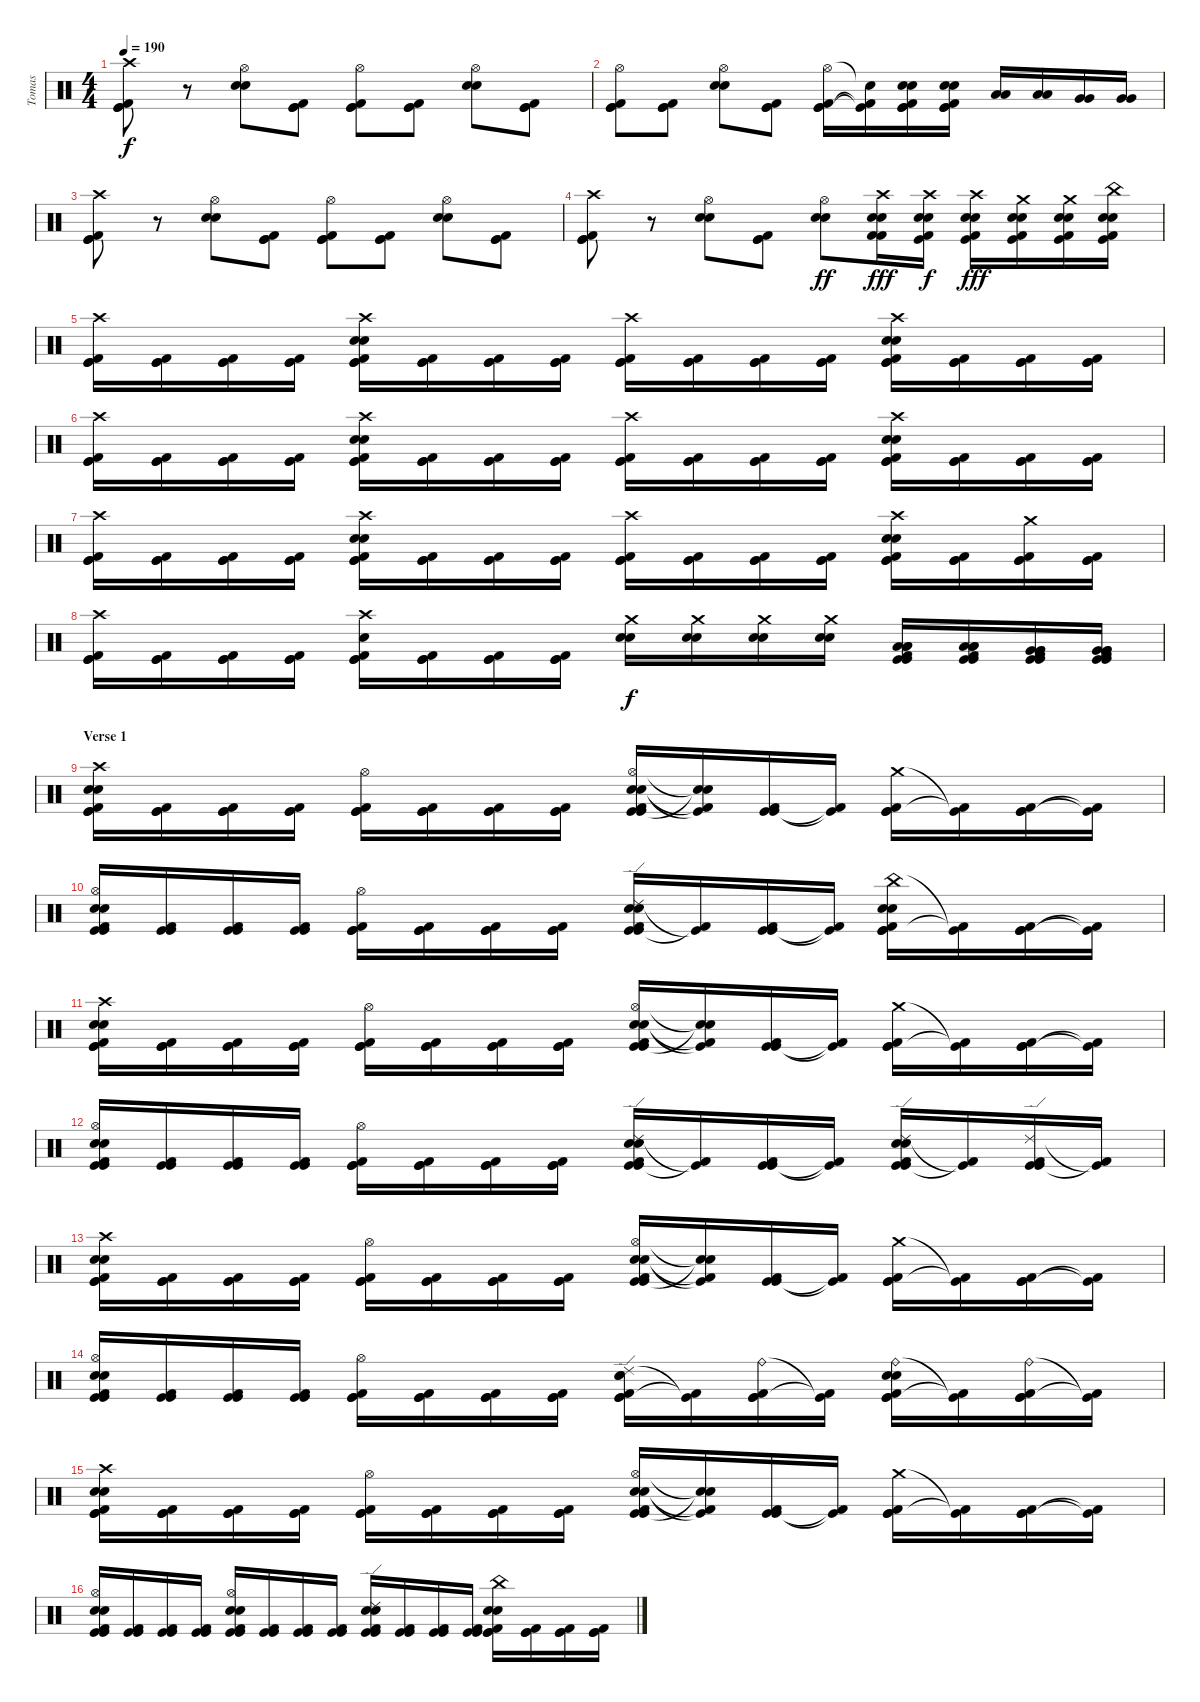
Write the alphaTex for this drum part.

\track ("Tomas" "Tomas") {instrument percussion}
\staff {score}
\articulation defaults
\ts (4 4)
\tempo 190
\clef neutral
\ks c
("Crash high (hit)" "Kick (hit)" "Kick (hit)" "Kick (hit) 2").8{dy f} r.8 ("Hi-Hat (open)" "Electric Snare (hit)" "Electric Snare (hit)").8 ("Kick (hit)" "Kick (hit)" "Kick (hit) 2").8 ("Hi-Hat (open)" "Kick (hit)" "Kick (hit)" "Kick (hit) 2").8 ("Kick (hit)" "Kick (hit)" "Kick (hit) 2").8 ("Hi-Hat (open)" "Electric Snare (hit)" "Electric Snare (hit)").8 ("Kick (hit)" "Kick (hit)" "Kick (hit) 2").8 |
("Hi-Hat (open)" "Kick (hit)" "Kick (hit)" "Kick (hit) 2").8 ("Kick (hit)" "Kick (hit)" "Kick (hit) 2").8 ("Hi-Hat (open)" "Electric Snare (hit)" "Electric Snare (hit)").8 ("Kick (hit)" "Kick (hit)" "Kick (hit) 2").8 ("Hi-Hat (open)" "Kick (hit)" "Kick (hit)" "Kick (hit) 2").16 ("Snare (hit)"{t} "Kick (hit)"{t} "Kick (hit) 2"{t}).16 ("Kick (hit)" "Electric Snare (hit)" "Electric Snare (hit)" "Kick (hit)" "Kick (hit) 2").16 ("Kick (hit)" "Electric Snare (hit)" "Electric Snare (hit)" "Kick (hit)" "Kick (hit) 2").16 ("Low Tom (hit)" "Low Tom (hit)").16 ("Low Tom (hit)" "Low Tom (hit)").16 ("Very Low Tom (hit)" "Very Low Tom (hit)").16 ("Very Low Tom (hit)" "Very Low Tom (hit)").16 |
("Crash high (hit)" "Kick (hit)" "Kick (hit)" "Kick (hit) 2").8 r.8 ("Hi-Hat (open)" "Electric Snare (hit)" "Electric Snare (hit)").8 ("Kick (hit)" "Kick (hit)" "Kick (hit) 2").8 ("Hi-Hat (open)" "Kick (hit)" "Kick (hit)" "Kick (hit) 2").8 ("Kick (hit)" "Kick (hit)" "Kick (hit) 2").8 ("Hi-Hat (open)" "Electric Snare (hit)" "Electric Snare (hit)").8 ("Kick (hit)" "Kick (hit)" "Kick (hit) 2").8 |
("Crash high (hit)" "Kick (hit)" "Kick (hit)" "Kick (hit) 2").8 r.8 ("Hi-Hat (open)" "Electric Snare (hit)" "Electric Snare (hit)").8 ("Kick (hit)" "Kick (hit)" "Kick (hit) 2").8 ("Hi-Hat (open)" "Electric Snare (hit)" "Electric Snare (hit)").8{dy ff} ("Crash high (hit)" "Kick (hit) 2" "Kick (hit) 2" "Electric Snare (hit)" "Electric Snare (hit)").16{dy fff} ("Crash high (hit)" "Kick (hit)" "Kick (hit) 2" "Electric Snare (hit)" "Electric Snare (hit)").16{dy f} ("Crash high (hit)" "Kick (hit)" "Kick (hit) 2" "Electric Snare (hit)" "Electric Snare (hit)").16{dy fff} ("Crash medium (hit)" "Kick (hit)" "Kick (hit) 2" "Electric Snare (hit)" "Electric Snare (hit)").16 ("Crash medium (hit)" "Kick (hit)" "Kick (hit) 2" "Electric Snare (hit)" "Electric Snare (hit)").16 ("China (hit)" "Kick (hit)" "Kick (hit) 2" "Electric Snare (hit)" "Electric Snare (hit)").16 |
("Crash high (hit)" "Kick (hit)" "Kick (hit)" "Kick (hit) 2").16 ("Kick (hit)" "Kick (hit)" "Kick (hit) 2").16 ("Kick (hit)" "Kick (hit)" "Kick (hit) 2").16 ("Kick (hit)" "Kick (hit)" "Kick (hit) 2").16 ("Crash high (hit)" "Kick (hit)" "Electric Snare (hit)" "Electric Snare (hit)" "Kick (hit)" "Kick (hit) 2").16 ("Kick (hit)" "Kick (hit)" "Kick (hit) 2").16 ("Kick (hit)" "Kick (hit)" "Kick (hit) 2").16 ("Kick (hit)" "Kick (hit)" "Kick (hit) 2").16 ("Crash high (hit)" "Kick (hit)" "Kick (hit)" "Kick (hit) 2").16 ("Kick (hit)" "Kick (hit)" "Kick (hit) 2").16 ("Kick (hit)" "Kick (hit)" "Kick (hit) 2").16 ("Kick (hit)" "Kick (hit)" "Kick (hit) 2").16 ("Crash high (hit)" "Kick (hit)" "Electric Snare (hit)" "Electric Snare (hit)" "Kick (hit)" "Kick (hit) 2").16 ("Kick (hit)" "Kick (hit)" "Kick (hit) 2").16 ("Kick (hit)" "Kick (hit)" "Kick (hit) 2").16 ("Kick (hit)" "Kick (hit)" "Kick (hit) 2").16 |
("Crash high (hit)" "Kick (hit)" "Kick (hit)" "Kick (hit) 2").16 ("Kick (hit)" "Kick (hit)" "Kick (hit) 2").16 ("Kick (hit)" "Kick (hit)" "Kick (hit) 2").16 ("Kick (hit)" "Kick (hit)" "Kick (hit) 2").16 ("Crash high (hit)" "Kick (hit)" "Electric Snare (hit)" "Electric Snare (hit)" "Kick (hit)" "Kick (hit) 2").16 ("Kick (hit)" "Kick (hit)" "Kick (hit) 2").16 ("Kick (hit)" "Kick (hit)" "Kick (hit) 2").16 ("Kick (hit)" "Kick (hit)" "Kick (hit) 2").16 ("Crash high (hit)" "Kick (hit)" "Kick (hit)" "Kick (hit) 2").16 ("Kick (hit)" "Kick (hit)" "Kick (hit) 2").16 ("Kick (hit)" "Kick (hit)" "Kick (hit) 2").16 ("Kick (hit)" "Kick (hit)" "Kick (hit) 2").16 ("Crash high (hit)" "Kick (hit)" "Electric Snare (hit)" "Electric Snare (hit)" "Kick (hit)" "Kick (hit) 2").16 ("Kick (hit)" "Kick (hit)" "Kick (hit) 2").16 ("Kick (hit)" "Kick (hit)" "Kick (hit) 2").16 ("Kick (hit)" "Kick (hit)" "Kick (hit) 2").16 |
("Crash high (hit)" "Kick (hit)" "Kick (hit)" "Kick (hit) 2").16 ("Kick (hit)" "Kick (hit)" "Kick (hit) 2").16 ("Kick (hit)" "Kick (hit)" "Kick (hit) 2").16 ("Kick (hit)" "Kick (hit)" "Kick (hit) 2").16 ("Crash high (hit)" "Kick (hit)" "Electric Snare (hit)" "Electric Snare (hit)" "Kick (hit)" "Kick (hit) 2").16 ("Kick (hit)" "Kick (hit)" "Kick (hit) 2").16 ("Kick (hit)" "Kick (hit)" "Kick (hit) 2").16 ("Kick (hit)" "Kick (hit)" "Kick (hit) 2").16 ("Crash high (hit)" "Kick (hit)" "Kick (hit)" "Kick (hit) 2").16 ("Kick (hit)" "Kick (hit)" "Kick (hit) 2").16 ("Kick (hit)" "Kick (hit)" "Kick (hit) 2").16 ("Kick (hit)" "Kick (hit)" "Kick (hit) 2").16 ("Crash high (hit)" "Kick (hit)" "Electric Snare (hit)" "Electric Snare (hit)" "Kick (hit)" "Kick (hit) 2").16 ("Kick (hit)" "Kick (hit)" "Kick (hit) 2").16 ("Crash medium (hit)" "Kick (hit)" "Kick (hit)" "Kick (hit) 2").16 ("Kick (hit)" "Kick (hit)" "Kick (hit) 2").16 |
("Crash high (hit)" "Kick (hit)" "Kick (hit)" "Kick (hit) 2").16 ("Kick (hit)" "Kick (hit)" "Kick (hit) 2").16 ("Kick (hit)" "Kick (hit)" "Kick (hit) 2").16 ("Kick (hit)" "Kick (hit)" "Kick (hit) 2").16 ("Crash high (hit)" "Kick (hit)" "Electric Snare (hit)" "Kick (hit)" "Kick (hit) 2").16 ("Kick (hit)" "Kick (hit)" "Kick (hit) 2").16 ("Kick (hit)" "Kick (hit)" "Kick (hit) 2").16 ("Kick (hit)" "Kick (hit)" "Kick (hit) 2").16 ("Crash medium (hit)" "Electric Snare (hit)" "Electric Snare (hit)").16{dy f} ("Crash medium (hit)" "Electric Snare (hit)" "Electric Snare (hit)").16 ("Crash medium (hit)" "Electric Snare (hit)" "Electric Snare (hit)").16 ("Crash medium (hit)" "Electric Snare (hit)" "Electric Snare (hit)").16 ("Low Tom (hit)" "Kick (hit)" "Kick (hit) 2" "Kick (hit)" "Low Tom (hit)" "Low Tom (hit)").16 ("Low Tom (hit)" "Kick (hit)" "Kick (hit) 2" "Kick (hit)" "Low Tom (hit)" "Low Tom (hit)").16 ("Very Low Tom (hit)" "Kick (hit)" "Kick (hit) 2" "Kick (hit)" "Very Low Tom (hit)" "Very Low Tom (hit)").16 ("Very Low Tom (hit)" "Kick (hit)" "Kick (hit) 2" "Kick (hit)" "Very Low Tom (hit)" "Very Low Tom (hit)").16 |
\section ("" "Verse 1")
("Crash high (hit)" "Kick (hit)" "Electric Snare (hit)" "Electric Snare (hit)" "Kick (hit)" "Kick (hit) 2").16 ("Kick (hit)" "Kick (hit)" "Kick (hit) 2").16 ("Kick (hit)" "Kick (hit)" "Kick (hit) 2").16 ("Kick (hit)" "Kick (hit)" "Kick (hit) 2").16 ("Hi-Hat (open)" "Kick (hit)" "Kick (hit)" "Kick (hit) 2").16 ("Kick (hit)" "Kick (hit)" "Kick (hit) 2").16 ("Kick (hit)" "Kick (hit)" "Kick (hit) 2").16 ("Kick (hit)" "Kick (hit)" "Kick (hit) 2").16 ("Hi-Hat (open)" "Kick (hit)" "Electric Snare (hit)" "Electric Snare (hit)" "Kick (hit)" "Kick (hit) 2").16 ("Snare (hit)"{t} "Snare (hit)"{t} "Kick (hit)"{t} "Kick (hit) 2"{t}).16 ("Kick (hit)" "Kick (hit)" "Kick (hit) 2").16 ("Kick (hit)"{t} "Kick (hit) 2"{t}).16 ("Crash medium (hit)" "Kick (hit)" "Kick (hit)" "Kick (hit) 2").16 ("Kick (hit)"{t} "Kick (hit) 2"{t}).16 ("Kick (hit)" "Kick (hit)" "Kick (hit) 2").16 ("Kick (hit)"{t} "Kick (hit) 2"{t}).16 |
("Hi-Hat (open)" "Kick (hit)" "Electric Snare (hit)" "Electric Snare (hit)" "Kick (hit)" "Kick (hit) 2").16 ("Kick (hit)" "Kick (hit)" "Kick (hit) 2").16 ("Kick (hit)" "Kick (hit)" "Kick (hit) 2").16 ("Kick (hit)" "Kick (hit)" "Kick (hit) 2").16 ("Hi-Hat (open)" "Kick (hit)" "Kick (hit)" "Kick (hit) 2").16 ("Kick (hit)" "Kick (hit)" "Kick (hit) 2").16 ("Kick (hit)" "Kick (hit)" "Kick (hit) 2").16 ("Kick (hit)" "Kick (hit)" "Kick (hit) 2").16 ("Ride (edge) 2" "Kick (hit)" "Electric Snare (hit)" "Electric Snare (hit)" "Kick (hit)" "Kick (hit) 2").16 ("Kick (hit)"{t} "Kick (hit) 2"{t}).16 ("Kick (hit)" "Kick (hit)" "Kick (hit) 2").16 ("Kick (hit)"{t} "Kick (hit) 2"{t}).16 ("China (hit)" "Kick (hit)" "Electric Snare (hit)" "Electric Snare (hit)" "Kick (hit)" "Kick (hit) 2").16 ("Kick (hit)"{t} "Kick (hit) 2"{t}).16 ("Kick (hit)" "Kick (hit)" "Kick (hit) 2").16 ("Kick (hit)"{t} "Kick (hit) 2"{t}).16 |
("Crash high (hit)" "Kick (hit)" "Electric Snare (hit)" "Electric Snare (hit)" "Kick (hit)" "Kick (hit) 2").16 ("Kick (hit)" "Kick (hit)" "Kick (hit) 2").16 ("Kick (hit)" "Kick (hit)" "Kick (hit) 2").16 ("Kick (hit)" "Kick (hit)" "Kick (hit) 2").16 ("Hi-Hat (open)" "Kick (hit)" "Kick (hit)" "Kick (hit) 2").16 ("Kick (hit)" "Kick (hit)" "Kick (hit) 2").16 ("Kick (hit)" "Kick (hit)" "Kick (hit) 2").16 ("Kick (hit)" "Kick (hit)" "Kick (hit) 2").16 ("Hi-Hat (open)" "Kick (hit)" "Electric Snare (hit)" "Electric Snare (hit)" "Kick (hit)" "Kick (hit) 2").16 ("Snare (hit)"{t} "Snare (hit)"{t} "Kick (hit)"{t} "Kick (hit) 2"{t}).16 ("Kick (hit)" "Kick (hit)" "Kick (hit) 2").16 ("Kick (hit)"{t} "Kick (hit) 2"{t}).16 ("Crash medium (hit)" "Kick (hit)" "Kick (hit)" "Kick (hit) 2").16 ("Kick (hit)"{t} "Kick (hit) 2"{t}).16 ("Kick (hit)" "Kick (hit)" "Kick (hit) 2").16 ("Kick (hit)"{t} "Kick (hit) 2"{t}).16 |
("Hi-Hat (open)" "Kick (hit)" "Electric Snare (hit)" "Electric Snare (hit)" "Kick (hit)" "Kick (hit) 2").16 ("Kick (hit)" "Kick (hit)" "Kick (hit) 2").16 ("Kick (hit)" "Kick (hit)" "Kick (hit) 2").16 ("Kick (hit)" "Kick (hit)" "Kick (hit) 2").16 ("Hi-Hat (open)" "Kick (hit)" "Kick (hit)" "Kick (hit) 2").16 ("Kick (hit)" "Kick (hit)" "Kick (hit) 2").16 ("Kick (hit)" "Kick (hit)" "Kick (hit) 2").16 ("Kick (hit)" "Kick (hit)" "Kick (hit) 2").16 ("Ride (edge) 2" "Kick (hit)" "Electric Snare (hit)" "Electric Snare (hit)" "Kick (hit)" "Kick (hit) 2").16 ("Kick (hit)"{t} "Kick (hit) 2"{t}).16 ("Kick (hit)" "Kick (hit)" "Kick (hit) 2").16 ("Kick (hit)"{t} "Kick (hit) 2"{t}).16 ("Ride (edge) 2" "Kick (hit)" "Electric Snare (hit)" "Electric Snare (hit)" "Kick (hit)" "Kick (hit) 2").16 ("Kick (hit)"{t} "Kick (hit) 2"{t}).16 ("Ride (edge) 2" "Kick (hit)" "Kick (hit)" "Kick (hit) 2").16 ("Kick (hit)"{t} "Kick (hit) 2"{t}).16 |
("Crash high (hit)" "Kick (hit)" "Electric Snare (hit)" "Electric Snare (hit)" "Kick (hit)" "Kick (hit) 2").16 ("Kick (hit)" "Kick (hit)" "Kick (hit) 2").16 ("Kick (hit)" "Kick (hit)" "Kick (hit) 2").16 ("Kick (hit)" "Kick (hit)" "Kick (hit) 2").16 ("Hi-Hat (open)" "Kick (hit)" "Kick (hit)" "Kick (hit) 2").16 ("Kick (hit)" "Kick (hit)" "Kick (hit) 2").16 ("Kick (hit)" "Kick (hit)" "Kick (hit) 2").16 ("Kick (hit)" "Kick (hit)" "Kick (hit) 2").16 ("Hi-Hat (open)" "Kick (hit)" "Electric Snare (hit)" "Electric Snare (hit)" "Kick (hit)" "Kick (hit) 2").16 ("Snare (hit)"{t} "Snare (hit)"{t} "Kick (hit)"{t} "Kick (hit) 2"{t}).16 ("Kick (hit)" "Kick (hit)" "Kick (hit) 2").16 ("Kick (hit)"{t} "Kick (hit) 2"{t}).16 ("Crash medium (hit)" "Kick (hit)" "Kick (hit)" "Kick (hit) 2").16 ("Kick (hit)"{t} "Kick (hit) 2"{t}).16 ("Kick (hit)" "Kick (hit)" "Kick (hit) 2").16 ("Kick (hit)"{t} "Kick (hit) 2"{t}).16 |
("Hi-Hat (open)" "Kick (hit)" "Electric Snare (hit)" "Electric Snare (hit)" "Kick (hit)" "Kick (hit) 2").16 ("Kick (hit)" "Kick (hit)" "Kick (hit) 2").16 ("Kick (hit)" "Kick (hit)" "Kick (hit) 2").16 ("Kick (hit)" "Kick (hit)" "Kick (hit) 2").16 ("Hi-Hat (open)" "Kick (hit)" "Kick (hit)" "Kick (hit) 2").16 ("Kick (hit)" "Kick (hit)" "Kick (hit) 2").16 ("Kick (hit)" "Kick (hit)" "Kick (hit) 2").16 ("Kick (hit)" "Kick (hit)" "Kick (hit) 2").16 ("Ride (edge) 2" "Kick (hit)" "Electric Snare (hit)" "Electric Snare (hit)" "Kick (hit)" "Kick (hit) 2").16 ("Kick (hit)"{t} "Kick (hit) 2"{t}).16 ("Ride (bell)" "Kick (hit)" "Kick (hit)" "Kick (hit) 2").16 ("Kick (hit)"{t} "Kick (hit) 2"{t}).16 ("Ride (bell)" "Kick (hit)" "Electric Snare (hit)" "Electric Snare (hit)" "Kick (hit)" "Kick (hit) 2").16 ("Kick (hit)"{t} "Kick (hit) 2"{t}).16 ("Ride (bell)" "Kick (hit)" "Kick (hit)" "Kick (hit) 2").16 ("Kick (hit)"{t} "Kick (hit) 2"{t}).16 |
("Crash high (hit)" "Kick (hit)" "Electric Snare (hit)" "Electric Snare (hit)" "Kick (hit)" "Kick (hit) 2").16 ("Kick (hit)" "Kick (hit)" "Kick (hit) 2").16 ("Kick (hit)" "Kick (hit)" "Kick (hit) 2").16 ("Kick (hit)" "Kick (hit)" "Kick (hit) 2").16 ("Hi-Hat (open)" "Kick (hit)" "Kick (hit)" "Kick (hit) 2").16 ("Kick (hit)" "Kick (hit)" "Kick (hit) 2").16 ("Kick (hit)" "Kick (hit)" "Kick (hit) 2").16 ("Kick (hit)" "Kick (hit)" "Kick (hit) 2").16 ("Hi-Hat (open)" "Kick (hit)" "Electric Snare (hit)" "Electric Snare (hit)" "Kick (hit)" "Kick (hit) 2").16 ("Snare (hit)"{t} "Snare (hit)"{t} "Kick (hit)"{t} "Kick (hit) 2"{t}).16 ("Kick (hit)" "Kick (hit)" "Kick (hit) 2").16 ("Kick (hit)"{t} "Kick (hit) 2"{t}).16 ("Crash medium (hit)" "Kick (hit)" "Kick (hit)" "Kick (hit) 2").16 ("Kick (hit)"{t} "Kick (hit) 2"{t}).16 ("Kick (hit)" "Kick (hit)" "Kick (hit) 2").16 ("Kick (hit)"{t} "Kick (hit) 2"{t}).16 |
("Hi-Hat (open)" "Kick (hit)" "Electric Snare (hit)" "Electric Snare (hit)" "Kick (hit)" "Kick (hit) 2").16 ("Kick (hit)" "Kick (hit)" "Kick (hit) 2").16 ("Kick (hit)" "Kick (hit)" "Kick (hit) 2").16 ("Kick (hit)" "Kick (hit)" "Kick (hit) 2").16 ("Hi-Hat (open)" "Kick (hit)" "Electric Snare (hit)" "Electric Snare (hit)" "Kick (hit)" "Kick (hit) 2").16 ("Kick (hit)" "Kick (hit)" "Kick (hit) 2").16 ("Kick (hit)" "Kick (hit)" "Kick (hit) 2").16 ("Kick (hit)" "Kick (hit)" "Kick (hit) 2").16 ("Ride (edge) 2" "Kick (hit)" "Electric Snare (hit)" "Electric Snare (hit)" "Kick (hit)" "Kick (hit) 2").16 ("Kick (hit)" "Kick (hit)" "Kick (hit) 2").16 ("Kick (hit)" "Kick (hit)" "Kick (hit) 2").16 ("Kick (hit)" "Kick (hit)" "Kick (hit) 2").16 ("China (hit)" "Kick (hit)" "Electric Snare (hit)" "Electric Snare (hit)" "Kick (hit)" "Kick (hit) 2").16 ("Kick (hit)" "Kick (hit)" "Kick (hit) 2").16 ("Kick (hit)" "Kick (hit)" "Kick (hit) 2").16 ("Kick (hit)" "Kick (hit)" "Kick (hit) 2").16
